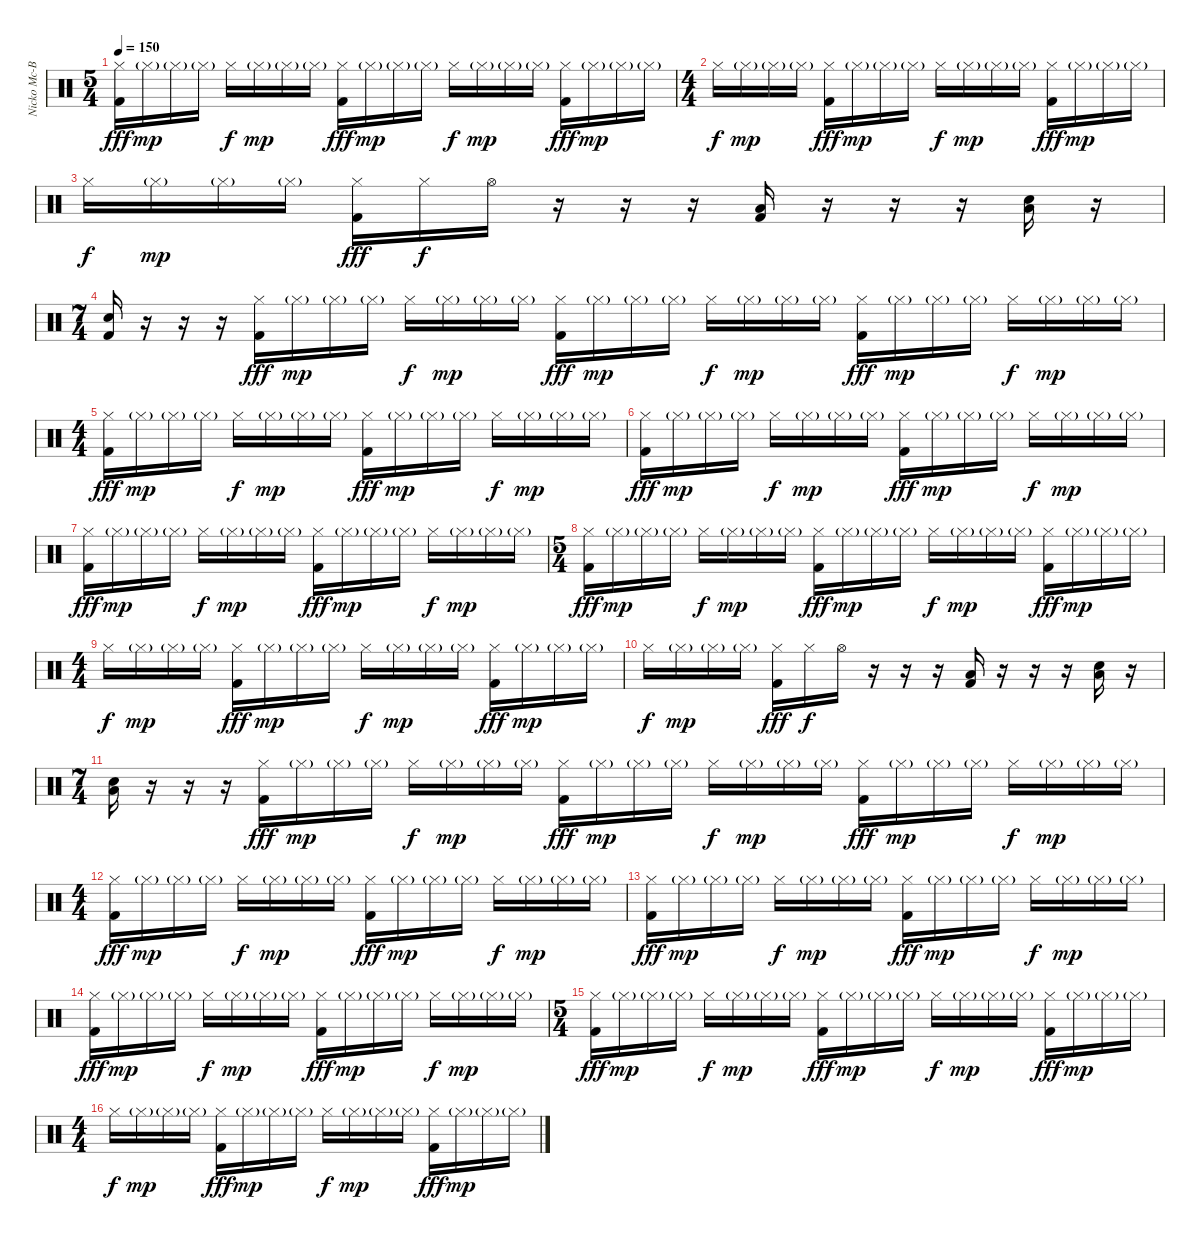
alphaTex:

\track ("Nicko Mc-Brain" "Nicko Mc-B") {instrument percussion}
\staff {score}
\articulation defaults
\ts (5 4)
\tempo 150
\clef neutral
\ks c
("Hi-Hat (closed)" "Kick (hit) 2").16{dy fff} "Hi-Hat (closed)"{g}.16{dy mp} "Hi-Hat (closed)"{g}.16 "Hi-Hat (closed)"{g}.16 "Hi-Hat (closed)".16{dy f} "Hi-Hat (closed)"{g}.16{dy mp} "Hi-Hat (closed)"{g}.16 "Hi-Hat (closed)"{g}.16 ("Hi-Hat (closed)" "Kick (hit) 2").16{dy fff} "Hi-Hat (closed)"{g}.16{dy mp} "Hi-Hat (closed)"{g}.16 "Hi-Hat (closed)"{g}.16 "Hi-Hat (closed)".16{dy f} "Hi-Hat (closed)"{g}.16{dy mp} "Hi-Hat (closed)"{g}.16 "Hi-Hat (closed)"{g}.16 ("Hi-Hat (closed)" "Kick (hit) 2").16{dy fff} "Hi-Hat (closed)"{g}.16{dy mp} "Hi-Hat (closed)"{g}.16 "Hi-Hat (closed)"{g}.16 |
\ts (4 4)
"Hi-Hat (closed)".16{dy f} "Hi-Hat (closed)"{g}.16{dy mp} "Hi-Hat (closed)"{g}.16 "Hi-Hat (closed)"{g}.16 ("Hi-Hat (closed)" "Kick (hit) 2").16{dy fff} "Hi-Hat (closed)"{g}.16{dy mp} "Hi-Hat (closed)"{g}.16 "Hi-Hat (closed)"{g}.16 "Hi-Hat (closed)".16{dy f} "Hi-Hat (closed)"{g}.16{dy mp} "Hi-Hat (closed)"{g}.16 "Hi-Hat (closed)"{g}.16 ("Hi-Hat (closed)" "Kick (hit) 2").16{dy fff} "Hi-Hat (closed)"{g}.16{dy mp} "Hi-Hat (closed)"{g}.16 "Hi-Hat (closed)"{g}.16 |
"Hi-Hat (closed)".16{dy f} "Hi-Hat (closed)"{g}.16{dy mp} "Hi-Hat (closed)"{g}.16 "Hi-Hat (closed)"{g}.16 ("Hi-Hat (closed)" "Kick (hit) 2").16{dy fff} "Hi-Hat (closed)".16{dy f} "Hi-Hat (open)".16 r.16 r.16 r.16 ("Low Floor Tom (hit)" "Kick (hit) 2").16 r.16 r.16 r.16 ("Low Floor Tom (hit)" "Snare (hit) 2").16 r.16 |
\ts (7 4)
("Snare (hit) 2" "Kick (hit) 2").16 r.16 r.16 r.16 ("Hi-Hat (closed)" "Kick (hit) 2").16{dy fff} "Hi-Hat (closed)"{g}.16{dy mp} "Hi-Hat (closed)"{g}.16 "Hi-Hat (closed)"{g}.16 "Hi-Hat (closed)".16{dy f} "Hi-Hat (closed)"{g}.16{dy mp} "Hi-Hat (closed)"{g}.16 "Hi-Hat (closed)"{g}.16 ("Hi-Hat (closed)" "Kick (hit) 2").16{dy fff} "Hi-Hat (closed)"{g}.16{dy mp} "Hi-Hat (closed)"{g}.16 "Hi-Hat (closed)"{g}.16 "Hi-Hat (closed)".16{dy f} "Hi-Hat (closed)"{g}.16{dy mp} "Hi-Hat (closed)"{g}.16 "Hi-Hat (closed)"{g}.16 ("Hi-Hat (closed)" "Kick (hit) 2").16{dy fff} "Hi-Hat (closed)"{g}.16{dy mp} "Hi-Hat (closed)"{g}.16 "Hi-Hat (closed)"{g}.16 "Hi-Hat (closed)".16{dy f} "Hi-Hat (closed)"{g}.16{dy mp} "Hi-Hat (closed)"{g}.16 "Hi-Hat (closed)"{g}.16 |
\ts (4 4)
("Hi-Hat (closed)" "Kick (hit) 2").16{dy fff} "Hi-Hat (closed)"{g}.16{dy mp} "Hi-Hat (closed)"{g}.16 "Hi-Hat (closed)"{g}.16 "Hi-Hat (closed)".16{dy f} "Hi-Hat (closed)"{g}.16{dy mp} "Hi-Hat (closed)"{g}.16 "Hi-Hat (closed)"{g}.16 ("Hi-Hat (closed)" "Kick (hit) 2").16{dy fff} "Hi-Hat (closed)"{g}.16{dy mp} "Hi-Hat (closed)"{g}.16 "Hi-Hat (closed)"{g}.16 "Hi-Hat (closed)".16{dy f} "Hi-Hat (closed)"{g}.16{dy mp} "Hi-Hat (closed)"{g}.16 "Hi-Hat (closed)"{g}.16 |
("Hi-Hat (closed)" "Kick (hit) 2").16{dy fff} "Hi-Hat (closed)"{g}.16{dy mp} "Hi-Hat (closed)"{g}.16 "Hi-Hat (closed)"{g}.16 "Hi-Hat (closed)".16{dy f} "Hi-Hat (closed)"{g}.16{dy mp} "Hi-Hat (closed)"{g}.16 "Hi-Hat (closed)"{g}.16 ("Hi-Hat (closed)" "Kick (hit) 2").16{dy fff} "Hi-Hat (closed)"{g}.16{dy mp} "Hi-Hat (closed)"{g}.16 "Hi-Hat (closed)"{g}.16 "Hi-Hat (closed)".16{dy f} "Hi-Hat (closed)"{g}.16{dy mp} "Hi-Hat (closed)"{g}.16 "Hi-Hat (closed)"{g}.16 |
("Hi-Hat (closed)" "Kick (hit) 2").16{dy fff} "Hi-Hat (closed)"{g}.16{dy mp} "Hi-Hat (closed)"{g}.16 "Hi-Hat (closed)"{g}.16 "Hi-Hat (closed)".16{dy f} "Hi-Hat (closed)"{g}.16{dy mp} "Hi-Hat (closed)"{g}.16 "Hi-Hat (closed)"{g}.16 ("Hi-Hat (closed)" "Kick (hit) 2").16{dy fff} "Hi-Hat (closed)"{g}.16{dy mp} "Hi-Hat (closed)"{g}.16 "Hi-Hat (closed)"{g}.16 "Hi-Hat (closed)".16{dy f} "Hi-Hat (closed)"{g}.16{dy mp} "Hi-Hat (closed)"{g}.16 "Hi-Hat (closed)"{g}.16 |
\ts (5 4)
("Hi-Hat (closed)" "Kick (hit) 2").16{dy fff} "Hi-Hat (closed)"{g}.16{dy mp} "Hi-Hat (closed)"{g}.16 "Hi-Hat (closed)"{g}.16 "Hi-Hat (closed)".16{dy f} "Hi-Hat (closed)"{g}.16{dy mp} "Hi-Hat (closed)"{g}.16 "Hi-Hat (closed)"{g}.16 ("Hi-Hat (closed)" "Kick (hit) 2").16{dy fff} "Hi-Hat (closed)"{g}.16{dy mp} "Hi-Hat (closed)"{g}.16 "Hi-Hat (closed)"{g}.16 "Hi-Hat (closed)".16{dy f} "Hi-Hat (closed)"{g}.16{dy mp} "Hi-Hat (closed)"{g}.16 "Hi-Hat (closed)"{g}.16 ("Hi-Hat (closed)" "Kick (hit) 2").16{dy fff} "Hi-Hat (closed)"{g}.16{dy mp} "Hi-Hat (closed)"{g}.16 "Hi-Hat (closed)"{g}.16 |
\ts (4 4)
"Hi-Hat (closed)".16{dy f} "Hi-Hat (closed)"{g}.16{dy mp} "Hi-Hat (closed)"{g}.16 "Hi-Hat (closed)"{g}.16 ("Hi-Hat (closed)" "Kick (hit) 2").16{dy fff} "Hi-Hat (closed)"{g}.16{dy mp} "Hi-Hat (closed)"{g}.16 "Hi-Hat (closed)"{g}.16 "Hi-Hat (closed)".16{dy f} "Hi-Hat (closed)"{g}.16{dy mp} "Hi-Hat (closed)"{g}.16 "Hi-Hat (closed)"{g}.16 ("Hi-Hat (closed)" "Kick (hit) 2").16{dy fff} "Hi-Hat (closed)"{g}.16{dy mp} "Hi-Hat (closed)"{g}.16 "Hi-Hat (closed)"{g}.16 |
"Hi-Hat (closed)".16{dy f} "Hi-Hat (closed)"{g}.16{dy mp} "Hi-Hat (closed)"{g}.16 "Hi-Hat (closed)"{g}.16 ("Hi-Hat (closed)" "Kick (hit) 2").16{dy fff} "Hi-Hat (closed)".16{dy f} "Hi-Hat (open)".16 r.16 r.16 r.16 ("Low Floor Tom (hit)" "Kick (hit) 2").16 r.16 r.16 r.16 ("Low Floor Tom (hit)" "Snare (hit) 2").16 r.16 |
\ts (7 4)
("Low Floor Tom (hit)" "Snare (hit) 2").16 r.16 r.16 r.16 ("Hi-Hat (closed)" "Kick (hit) 2").16{dy fff} "Hi-Hat (closed)"{g}.16{dy mp} "Hi-Hat (closed)"{g}.16 "Hi-Hat (closed)"{g}.16 "Hi-Hat (closed)".16{dy f} "Hi-Hat (closed)"{g}.16{dy mp} "Hi-Hat (closed)"{g}.16 "Hi-Hat (closed)"{g}.16 ("Hi-Hat (closed)" "Kick (hit) 2").16{dy fff} "Hi-Hat (closed)"{g}.16{dy mp} "Hi-Hat (closed)"{g}.16 "Hi-Hat (closed)"{g}.16 "Hi-Hat (closed)".16{dy f} "Hi-Hat (closed)"{g}.16{dy mp} "Hi-Hat (closed)"{g}.16 "Hi-Hat (closed)"{g}.16 ("Hi-Hat (closed)" "Kick (hit) 2").16{dy fff} "Hi-Hat (closed)"{g}.16{dy mp} "Hi-Hat (closed)"{g}.16 "Hi-Hat (closed)"{g}.16 "Hi-Hat (closed)".16{dy f} "Hi-Hat (closed)"{g}.16{dy mp} "Hi-Hat (closed)"{g}.16 "Hi-Hat (closed)"{g}.16 |
\ts (4 4)
("Hi-Hat (closed)" "Kick (hit) 2").16{dy fff} "Hi-Hat (closed)"{g}.16{dy mp} "Hi-Hat (closed)"{g}.16 "Hi-Hat (closed)"{g}.16 "Hi-Hat (closed)".16{dy f} "Hi-Hat (closed)"{g}.16{dy mp} "Hi-Hat (closed)"{g}.16 "Hi-Hat (closed)"{g}.16 ("Hi-Hat (closed)" "Kick (hit) 2").16{dy fff} "Hi-Hat (closed)"{g}.16{dy mp} "Hi-Hat (closed)"{g}.16 "Hi-Hat (closed)"{g}.16 "Hi-Hat (closed)".16{dy f} "Hi-Hat (closed)"{g}.16{dy mp} "Hi-Hat (closed)"{g}.16 "Hi-Hat (closed)"{g}.16 |
("Hi-Hat (closed)" "Kick (hit) 2").16{dy fff} "Hi-Hat (closed)"{g}.16{dy mp} "Hi-Hat (closed)"{g}.16 "Hi-Hat (closed)"{g}.16 "Hi-Hat (closed)".16{dy f} "Hi-Hat (closed)"{g}.16{dy mp} "Hi-Hat (closed)"{g}.16 "Hi-Hat (closed)"{g}.16 ("Hi-Hat (closed)" "Kick (hit) 2").16{dy fff} "Hi-Hat (closed)"{g}.16{dy mp} "Hi-Hat (closed)"{g}.16 "Hi-Hat (closed)"{g}.16 "Hi-Hat (closed)".16{dy f} "Hi-Hat (closed)"{g}.16{dy mp} "Hi-Hat (closed)"{g}.16 "Hi-Hat (closed)"{g}.16 |
("Hi-Hat (closed)" "Kick (hit) 2").16{dy fff} "Hi-Hat (closed)"{g}.16{dy mp} "Hi-Hat (closed)"{g}.16 "Hi-Hat (closed)"{g}.16 "Hi-Hat (closed)".16{dy f} "Hi-Hat (closed)"{g}.16{dy mp} "Hi-Hat (closed)"{g}.16 "Hi-Hat (closed)"{g}.16 ("Hi-Hat (closed)" "Kick (hit) 2").16{dy fff} "Hi-Hat (closed)"{g}.16{dy mp} "Hi-Hat (closed)"{g}.16 "Hi-Hat (closed)"{g}.16 "Hi-Hat (closed)".16{dy f} "Hi-Hat (closed)"{g}.16{dy mp} "Hi-Hat (closed)"{g}.16 "Hi-Hat (closed)"{g}.16 |
\ts (5 4)
("Hi-Hat (closed)" "Kick (hit) 2").16{dy fff} "Hi-Hat (closed)"{g}.16{dy mp} "Hi-Hat (closed)"{g}.16 "Hi-Hat (closed)"{g}.16 "Hi-Hat (closed)".16{dy f} "Hi-Hat (closed)"{g}.16{dy mp} "Hi-Hat (closed)"{g}.16 "Hi-Hat (closed)"{g}.16 ("Hi-Hat (closed)" "Kick (hit) 2").16{dy fff} "Hi-Hat (closed)"{g}.16{dy mp} "Hi-Hat (closed)"{g}.16 "Hi-Hat (closed)"{g}.16 "Hi-Hat (closed)".16{dy f} "Hi-Hat (closed)"{g}.16{dy mp} "Hi-Hat (closed)"{g}.16 "Hi-Hat (closed)"{g}.16 ("Hi-Hat (closed)" "Kick (hit) 2").16{dy fff} "Hi-Hat (closed)"{g}.16{dy mp} "Hi-Hat (closed)"{g}.16 "Hi-Hat (closed)"{g}.16 |
\ts (4 4)
"Hi-Hat (closed)".16{dy f} "Hi-Hat (closed)"{g}.16{dy mp} "Hi-Hat (closed)"{g}.16 "Hi-Hat (closed)"{g}.16 ("Hi-Hat (closed)" "Kick (hit) 2").16{dy fff} "Hi-Hat (closed)"{g}.16{dy mp} "Hi-Hat (closed)"{g}.16 "Hi-Hat (closed)"{g}.16 "Hi-Hat (closed)".16{dy f} "Hi-Hat (closed)"{g}.16{dy mp} "Hi-Hat (closed)"{g}.16 "Hi-Hat (closed)"{g}.16 ("Hi-Hat (closed)" "Kick (hit) 2").16{dy fff} "Hi-Hat (closed)"{g}.16{dy mp} "Hi-Hat (closed)"{g}.16 "Hi-Hat (closed)"{g}.16
